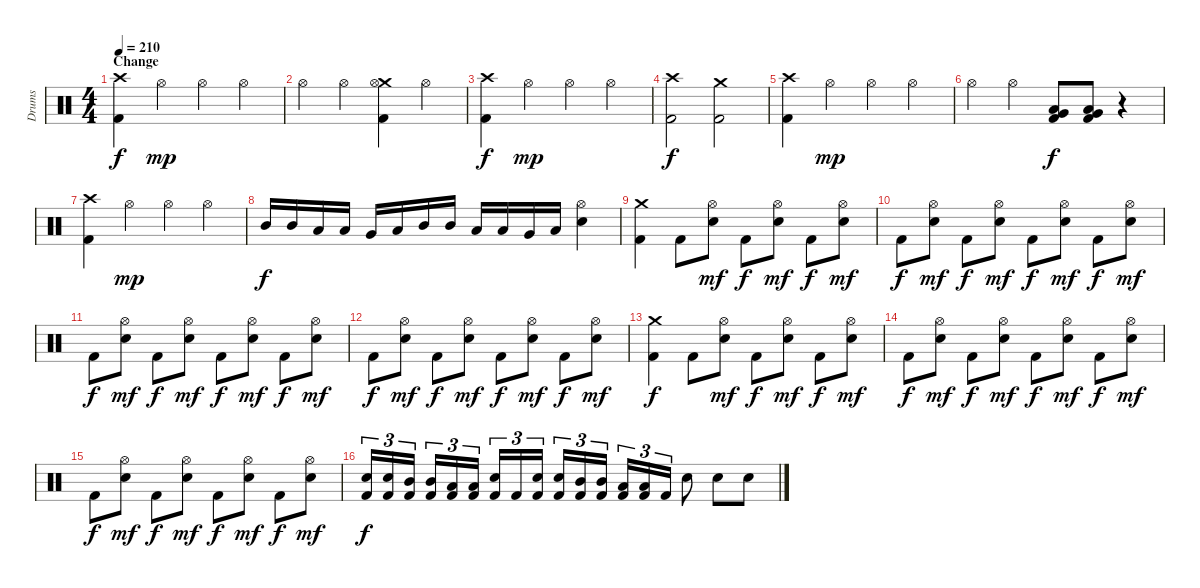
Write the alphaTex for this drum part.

\track ("Drums" "Drums") {instrument percussion}
\staff {score}
\articulation defaults
\ts (4 4)
\section ("" "Change")
\tempo 210
\clef neutral
\ks c
("Crash high (hit)" "Kick (hit) 2").4{dy f} "Hi-Hat (open)".4{dy mp} "Hi-Hat (open)".4 "Hi-Hat (open)".4 |
"Hi-Hat (open)".4 "Hi-Hat (open)".4 ("Crash medium (hit)" "Hi-Hat (open)" "Kick (hit) 2").4 "Hi-Hat (open)".4 |
("Crash high (hit)" "Kick (hit) 2").4{dy f} "Hi-Hat (open)".4{dy mp} "Hi-Hat (open)".4 "Hi-Hat (open)".4 |
("Crash high (hit)" "Kick (hit) 2").2{dy f} ("Crash medium (hit)" "Kick (hit) 2").2 |
("Crash high (hit)" "Kick (hit) 2").4 "Hi-Hat (open)".4{dy mp} "Hi-Hat (open)".4 "Hi-Hat (open)".4 |
"Hi-Hat (open)".4 "Hi-Hat (open)".4 ("Very Low Tom (hit)" "Low Floor Tom (hit)" "Kick (hit) 2").8{dy f} ("Very Low Tom (hit)" "Low Floor Tom (hit)" "Kick (hit) 2").8 r.4 |
("Crash high (hit)" "Kick (hit) 2").4 "Hi-Hat (open)".4{dy mp} "Hi-Hat (open)".4 "Hi-Hat (open)".4 |
"Mid Tom (hit)".16{dy f} "Mid Tom (hit)".16 "Low Tom (hit)".16 "Low Tom (hit)".16 "Very Low Tom (hit)".16 "Low Floor Tom (hit)".16 "Mid Tom (hit)".16 "Mid Tom (hit)".16 "Low Tom (hit)".16 "Low Tom (hit)".16 "Very Low Tom (hit)".16 "Low Floor Tom (hit)".16 ("Hi-Hat (open)" "Electric Snare (hit)").4 |
\section ("" "")
("Crash medium (hit)" "Kick (hit) 2").4 "Kick (hit) 2".8 ("Hi-Hat (open)" "Electric Snare (hit)").8{dy mf} "Kick (hit) 2".8{dy f} ("Hi-Hat (open)" "Electric Snare (hit)").8{dy mf} "Kick (hit) 2".8{dy f} ("Hi-Hat (open)" "Electric Snare (hit)").8{dy mf} |
"Kick (hit) 2".8{dy f} ("Hi-Hat (open)" "Electric Snare (hit)").8{dy mf} "Kick (hit) 2".8{dy f} ("Hi-Hat (open)" "Electric Snare (hit)").8{dy mf} "Kick (hit) 2".8{dy f} ("Hi-Hat (open)" "Electric Snare (hit)").8{dy mf} "Kick (hit) 2".8{dy f} ("Hi-Hat (open)" "Electric Snare (hit)").8{dy mf} |
"Kick (hit) 2".8{dy f} ("Hi-Hat (open)" "Electric Snare (hit)").8{dy mf} "Kick (hit) 2".8{dy f} ("Hi-Hat (open)" "Electric Snare (hit)").8{dy mf} "Kick (hit) 2".8{dy f} ("Hi-Hat (open)" "Electric Snare (hit)").8{dy mf} "Kick (hit) 2".8{dy f} ("Hi-Hat (open)" "Electric Snare (hit)").8{dy mf} |
"Kick (hit) 2".8{dy f} ("Hi-Hat (open)" "Electric Snare (hit)").8{dy mf} "Kick (hit) 2".8{dy f} ("Hi-Hat (open)" "Electric Snare (hit)").8{dy mf} "Kick (hit) 2".8{dy f} ("Hi-Hat (open)" "Electric Snare (hit)").8{dy mf} "Kick (hit) 2".8{dy f} ("Hi-Hat (open)" "Electric Snare (hit)").8{dy mf} |
("Crash medium (hit)" "Kick (hit) 2").4{dy f} "Kick (hit) 2".8 ("Hi-Hat (open)" "Electric Snare (hit)").8{dy mf} "Kick (hit) 2".8{dy f} ("Hi-Hat (open)" "Electric Snare (hit)").8{dy mf} "Kick (hit) 2".8{dy f} ("Hi-Hat (open)" "Electric Snare (hit)").8{dy mf} |
"Kick (hit) 2".8{dy f} ("Hi-Hat (open)" "Electric Snare (hit)").8{dy mf} "Kick (hit) 2".8{dy f} ("Hi-Hat (open)" "Electric Snare (hit)").8{dy mf} "Kick (hit) 2".8{dy f} ("Hi-Hat (open)" "Electric Snare (hit)").8{dy mf} "Kick (hit) 2".8{dy f} ("Hi-Hat (open)" "Electric Snare (hit)").8{dy mf} |
"Kick (hit) 2".8{dy f} ("Hi-Hat (open)" "Electric Snare (hit)").8{dy mf} "Kick (hit) 2".8{dy f} ("Hi-Hat (open)" "Electric Snare (hit)").8{dy mf} "Kick (hit) 2".8{dy f} ("Hi-Hat (open)" "Electric Snare (hit)").8{dy mf} "Kick (hit) 2".8{dy f} ("Hi-Hat (open)" "Electric Snare (hit)").8{dy mf} |
("Electric Snare (hit)" "Kick (hit) 2").16{tu (3 2) dy f} ("Electric Snare (hit)" "Kick (hit) 2").16{tu (3 2)} ("Mid Tom (hit)" "Kick (hit) 2").16{tu (3 2)} ("Mid Tom (hit)" "Kick (hit) 2").16{tu (3 2)} ("Low Tom (hit)" "Kick (hit) 2").16{tu (3 2)} ("Low Tom (hit)" "Kick (hit) 2").16{tu (3 2)} ("Electric Snare (hit)" "Kick (hit) 2").16{tu (3 2)} "Kick (hit) 2".16{tu (3 2)} ("Electric Snare (hit)" "Kick (hit) 2").16{tu (3 2)} ("Electric Snare (hit)" "Kick (hit) 2").16{tu (3 2)} ("Mid Tom (hit)" "Kick (hit) 2").16{tu (3 2)} ("Mid Tom (hit)" "Kick (hit) 2").16{tu (3 2)} ("Low Tom (hit)" "Kick (hit) 2").16{tu (3 2)} ("Low Tom (hit)" "Kick (hit) 2").16{tu (3 2)} "Kick (hit) 2".16{tu (3 2)} "Electric Snare (hit)".8 "Electric Snare (hit)".8 "Electric Snare (hit)".8
